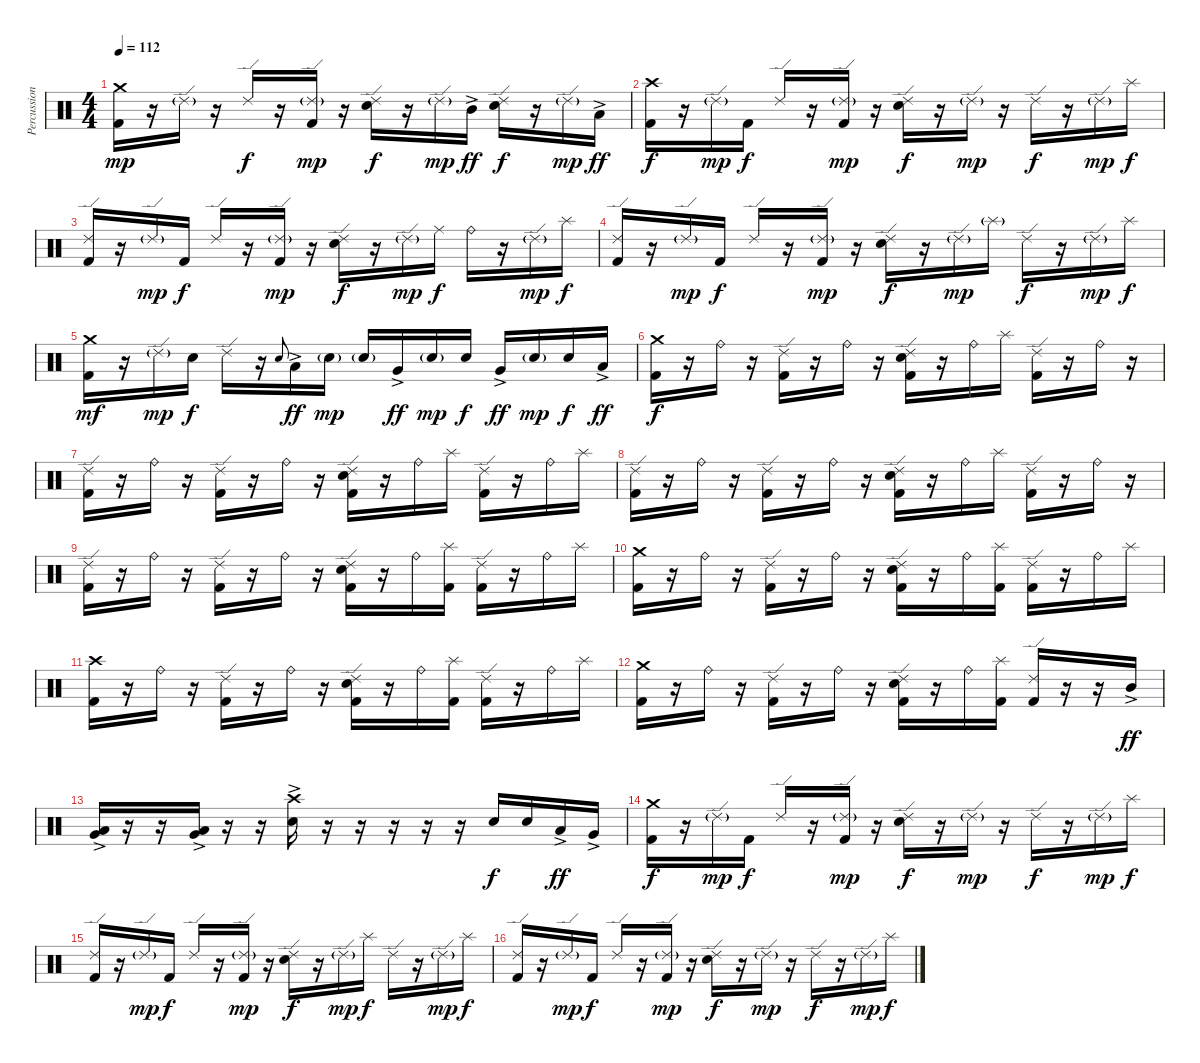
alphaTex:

\track ("Percussion" "Percussion") {instrument percussion}
\staff {score}
\articulation defaults
\ts (4 4)
\tempo 112
\clef neutral
\ks c
("Crash medium (hit)" "Kick (hit) 2").16{dy mp} r.16 "Ride (edge) 2"{g}.16 r.16 "Ride (edge) 2".16{dy f} r.16 ("Ride (edge) 2"{g} "Kick (hit) 2").16{dy mp} r.16 ("Ride (edge) 2" "Electric Snare (hit)").16{dy f} r.16 "Ride (edge) 2"{g}.16{dy mp} "Mid Tom (hit)"{ac}.16{dy ff} ("Ride (edge) 2" "Electric Snare (hit)").16{dy f} r.16 "Ride (edge) 2"{g}.16{dy mp} "Low Tom (hit)"{ac}.16{dy ff} |
("Crash high (hit)" "Kick (hit) 2").16{dy f} r.16 "Ride (edge) 2"{g}.16{dy mp} "Kick (hit) 2".16{dy f} "Ride (edge) 2".16 r.16 ("Ride (edge) 2"{g} "Kick (hit) 2").16{dy mp} r.16 ("Ride (edge) 2" "Electric Snare (hit)").16{dy f} r.16 "Ride (edge) 2"{g}.16{dy mp} r.16 "Ride (edge) 2".16{dy f} r.16 "Ride (edge) 2"{g}.16{dy mp} "Splash (hit)".16{dy f} |
("Ride (edge) 2" "Kick (hit) 2").16 r.16 "Ride (edge) 2"{g}.16{dy mp} "Kick (hit) 2".16{dy f} "Ride (edge) 2".16 r.16 ("Ride (edge) 2"{g} "Kick (hit) 2").16{dy mp} r.16 ("Ride (edge) 2" "Electric Snare (hit)").16{dy f} r.16 "Ride (edge) 2"{g}.16{dy mp} "Ride (middle)".16{dy f} "Ride (bell)".16 r.16 "Ride (edge) 2"{g}.16{dy mp} "Splash (hit)".16{dy f} |
("Ride (edge) 2" "Kick (hit) 2").16 r.16 "Ride (edge) 2"{g}.16{dy mp} "Kick (hit) 2".16{dy f} "Ride (edge) 2".16 r.16 ("Ride (edge) 2"{g} "Kick (hit) 2").16{dy mp} r.16 ("Ride (edge) 2" "Electric Snare (hit)").16{dy f} r.16 "Ride (edge) 2"{g}.16{dy mp} "Splash (hit)"{g}.16 "Ride (edge) 2".16{dy f} r.16 "Ride (edge) 2"{g}.16{dy mp} "Splash (hit)".16{dy f} |
("Crash medium (hit)" "Kick (hit) 2").16{dy mf} r.16 "Ride (edge) 2"{g}.16{dy mp} "Electric Snare (hit)".16{dy f} "Ride (edge) 2".16 r.16 "Electric Snare (hit)".8{gr onbeat} "Low Tom (hit)"{ac}.16{dy ff} "Electric Snare (hit)"{g}.16{dy mp} "Electric Snare (hit)"{g}.16 "Very Low Tom (hit)"{ac}.16{dy ff} "Electric Snare (hit)"{g}.16{dy mp} "Electric Snare (hit)".16{dy f} "Very Low Tom (hit)"{ac}.16{dy ff} "Electric Snare (hit)"{g}.16{dy mp} "Electric Snare (hit)".16{dy f} "Low Floor Tom (hit)"{ac}.16{dy ff} |
("Crash medium (hit)" "Kick (hit) 2").16{dy f} r.16 "Ride (bell)".16 r.16 ("Ride (edge) 2" "Kick (hit) 2").16 r.16 "Ride (bell)".16 r.16 ("Ride (edge) 2" "Electric Snare (hit)" "Kick (hit) 2").16 r.16 "Ride (bell)".16 "Splash (hit)".16 ("Ride (edge) 2" "Kick (hit) 2").16 r.16 "Ride (bell)".16 r.16 |
("Ride (edge) 2" "Kick (hit) 2").16 r.16 "Ride (bell)".16 r.16 ("Ride (edge) 2" "Kick (hit) 2").16 r.16 "Ride (bell)".16 r.16 ("Ride (edge) 2" "Electric Snare (hit)" "Kick (hit) 2").16 r.16 "Ride (bell)".16 "Splash (hit)".16 ("Ride (edge) 2" "Kick (hit) 2").16 r.16 "Ride (bell)".16 "Splash (hit)".16 |
("Ride (edge) 2" "Kick (hit) 2").16 r.16 "Ride (bell)".16 r.16 ("Ride (edge) 2" "Kick (hit) 2").16 r.16 "Ride (bell)".16 r.16 ("Ride (edge) 2" "Electric Snare (hit)" "Kick (hit) 2").16 r.16 "Ride (bell)".16 "Splash (hit)".16 ("Ride (edge) 2" "Kick (hit) 2").16 r.16 "Ride (bell)".16 r.16 |
("Ride (edge) 2" "Kick (hit) 2").16 r.16 "Ride (bell)".16 r.16 ("Ride (edge) 2" "Kick (hit) 2").16 r.16 "Ride (bell)".16 r.16 ("Ride (edge) 2" "Electric Snare (hit)" "Kick (hit) 2").16 r.16 "Ride (bell)".16 ("Splash (hit)" "Kick (hit) 2").16 ("Ride (edge) 2" "Kick (hit) 2").16 r.16 "Ride (bell)".16 "Splash (hit)".16 |
("Crash medium (hit)" "Kick (hit) 2").16 r.16 "Ride (bell)".16 r.16 ("Ride (edge) 2" "Kick (hit) 2").16 r.16 "Ride (bell)".16 r.16 ("Ride (edge) 2" "Electric Snare (hit)" "Kick (hit) 2").16 r.16 "Ride (bell)".16 ("Splash (hit)" "Kick (hit) 2").16 ("Ride (edge) 2" "Kick (hit) 2").16 r.16 "Ride (bell)".16 "Splash (hit)".16 |
("Crash high (hit)" "Kick (hit) 2").16 r.16 "Ride (bell)".16 r.16 ("Ride (edge) 2" "Kick (hit) 2").16 r.16 "Ride (bell)".16 r.16 ("Ride (edge) 2" "Electric Snare (hit)" "Kick (hit) 2").16 r.16 "Ride (bell)".16 ("Splash (hit)" "Kick (hit) 2").16 ("Ride (edge) 2" "Kick (hit) 2").16 r.16 "Ride (bell)".16 "Splash (hit)".16 |
("Crash medium (hit)" "Kick (hit) 2").16 r.16 "Ride (bell)".16 r.16 ("Ride (edge) 2" "Kick (hit) 2").16 r.16 "Ride (bell)".16 r.16 ("Ride (edge) 2" "Electric Snare (hit)" "Kick (hit) 2").16 r.16 "Ride (bell)".16 ("Splash (hit)" "Kick (hit) 2").16 ("Ride (edge) 2" "Kick (hit) 2").16 r.16 r.16 "Mid Tom (hit)"{ac}.16{dy ff} |
("Low Tom (hit)"{ac} "Very Low Tom (hit)"{ac}).16 r.16 r.16 ("Low Tom (hit)"{ac} "Very Low Tom (hit)"{ac}).16 r.16 r.16 ("Crash high (hit)" "Electric Snare (hit)"{ac}).16 r.16 r.16 r.16 r.16 r.16 "Electric Snare (hit)".16{dy f} "Electric Snare (hit)".16 "Low Tom (hit)"{ac}.16{dy ff} "Very Low Tom (hit)"{ac}.16 |
("Crash medium (hit)" "Kick (hit) 2").16{dy f} r.16 "Ride (edge) 2"{g}.16{dy mp} "Kick (hit) 2".16{dy f} "Ride (edge) 2".16 r.16 ("Ride (edge) 2"{g} "Kick (hit) 2").16{dy mp} r.16 ("Ride (edge) 2" "Electric Snare (hit)").16{dy f} r.16 "Ride (edge) 2"{g}.16{dy mp} r.16 "Ride (edge) 2".16{dy f} r.16 "Ride (edge) 2"{g}.16{dy mp} "Splash (hit)".16{dy f} |
("Ride (edge) 2" "Kick (hit) 2").16 r.16 "Ride (edge) 2"{g}.16{dy mp} "Kick (hit) 2".16{dy f} "Ride (edge) 2".16 r.16 ("Ride (edge) 2"{g} "Kick (hit) 2").16{dy mp} r.16 ("Ride (edge) 2" "Electric Snare (hit)").16{dy f} r.16 "Ride (edge) 2"{g}.16{dy mp} "Splash (hit)".16{dy f} "Ride (edge) 2".16 r.16 "Ride (edge) 2"{g}.16{dy mp} "Splash (hit)".16{dy f} |
("Ride (edge) 2" "Kick (hit) 2").16 r.16 "Ride (edge) 2"{g}.16{dy mp} "Kick (hit) 2".16{dy f} "Ride (edge) 2".16 r.16 ("Ride (edge) 2"{g} "Kick (hit) 2").16{dy mp} r.16 ("Ride (edge) 2" "Electric Snare (hit)").16{dy f} r.16 "Ride (edge) 2"{g}.16{dy mp} r.16 "Ride (edge) 2".16{dy f} r.16 "Ride (edge) 2"{g}.16{dy mp} "Splash (hit)".16{dy f}
